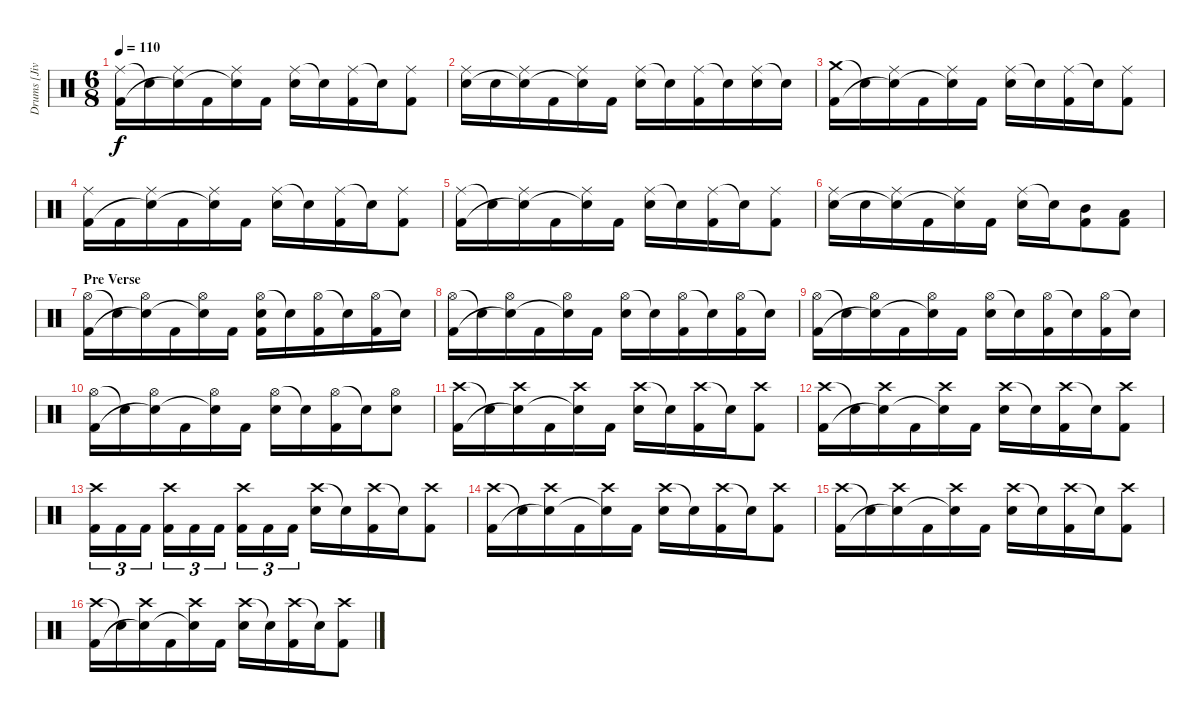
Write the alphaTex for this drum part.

\track ("Drums [Jivarp]" "Drums [Jiv") {instrument percussion}
\staff {score}
\articulation defaults
\ts (6 8)
\tempo 110
\clef neutral
\ks c
("Ride (middle)" "Kick (hit) 2").16{dy f} "Snare (hit)"{t}.16 ("Ride (middle)" "Snare (hit)"{t}).16 "Kick (hit) 2".16 ("Ride (middle)" "Snare (hit)"{t}).16 "Kick (hit) 2".16 ("Ride (middle)" "Electric Snare (hit)").16 "Snare (hit)"{t}.16 ("Ride (middle)" "Kick (hit) 2").16 "Snare (hit)"{t}.16 ("Ride (middle)" "Kick (hit) 2").8 |
("Ride (middle)" "Electric Snare (hit)").16 "Electric Snare (hit)".16 ("Ride (middle)" "Snare (hit)"{t}).16 "Kick (hit) 2".16 ("Ride (middle)" "Snare (hit)"{t}).16 "Kick (hit) 2".16 ("Ride (middle)" "Electric Snare (hit)").16 "Snare (hit)"{t}.16 ("Ride (middle)" "Kick (hit) 2").16 "Snare (hit)"{t}.16 ("Ride (middle)" "Electric Snare (hit)").16 "Snare (hit)"{t}.16 |
("Crash medium (hit)" "Kick (hit) 2").16 "Snare (hit)"{t}.16 ("Ride (middle)" "Snare (hit)"{t}).16 "Kick (hit) 2".16 ("Ride (middle)" "Snare (hit)"{t}).16 "Kick (hit) 2".16 ("Ride (middle)" "Electric Snare (hit)").16 "Snare (hit)"{t}.16 ("Ride (middle)" "Kick (hit) 2").16 "Snare (hit)"{t}.16 ("Ride (middle)" "Kick (hit) 2").8 |
("Ride (middle)" "Kick (hit) 2").16 "Kick (hit) 2".16 ("Ride (middle)" "Snare (hit)"{t}).16 "Kick (hit) 2".16 ("Ride (middle)" "Snare (hit)"{t}).16 "Kick (hit) 2".16 ("Ride (middle)" "Electric Snare (hit)").16 "Snare (hit)"{t}.16 ("Ride (middle)" "Kick (hit) 2").16 "Snare (hit)"{t}.16 ("Ride (middle)" "Kick (hit) 2").8 |
("Ride (middle)" "Kick (hit) 2").16 "Snare (hit)"{t}.16 ("Ride (middle)" "Snare (hit)"{t}).16 "Kick (hit) 2".16 ("Ride (middle)" "Snare (hit)"{t}).16 "Kick (hit) 2".16 ("Ride (middle)" "Electric Snare (hit)").16 "Snare (hit)"{t}.16 ("Ride (middle)" "Kick (hit) 2").16 "Snare (hit)"{t}.16 ("Ride (middle)" "Kick (hit) 2").8 |
("Ride (middle)" "Electric Snare (hit)").16 "Electric Snare (hit)".16 ("Ride (middle)" "Snare (hit)"{t}).16 "Kick (hit) 2".16 ("Ride (middle)" "Snare (hit)"{t}).16 "Kick (hit) 2".16 ("Ride (middle)" "Electric Snare (hit)").16 "Snare (hit)"{t}.16 ("Mid Tom (hit)" "Kick (hit) 2").8 ("Low Tom (hit)" "Kick (hit) 2").8 |
\section ("" "Pre Verse")
("Hi-Hat (open)" "Kick (hit) 2").16 "Snare (hit)"{t}.16 ("Hi-Hat (open)" "Snare (hit)"{t}).16 "Kick (hit) 2".16 ("Hi-Hat (open)" "Snare (hit)"{t}).16 "Kick (hit) 2".16 ("Hi-Hat (open)" "Electric Snare (hit)" "Kick (hit) 2").16 "Snare (hit)"{t}.16 ("Hi-Hat (open)" "Kick (hit) 2").16 "Snare (hit)"{t}.16 ("Hi-Hat (open)" "Kick (hit) 2").16 "Snare (hit)"{t}.16 |
("Hi-Hat (open)" "Kick (hit) 2").16 "Snare (hit)"{t}.16 ("Hi-Hat (open)" "Snare (hit)"{t}).16 "Kick (hit) 2".16 ("Hi-Hat (open)" "Snare (hit)"{t}).16 "Kick (hit) 2".16 ("Hi-Hat (open)" "Electric Snare (hit)").16 "Snare (hit)"{t}.16 ("Hi-Hat (open)" "Kick (hit) 2").16 "Snare (hit)"{t}.16 ("Hi-Hat (open)" "Kick (hit) 2").16 "Snare (hit)"{t}.16 |
("Hi-Hat (open)" "Kick (hit) 2").16 "Snare (hit)"{t}.16 ("Hi-Hat (open)" "Snare (hit)"{t}).16 "Kick (hit) 2".16 ("Hi-Hat (open)" "Snare (hit)"{t}).16 "Kick (hit) 2".16 ("Hi-Hat (open)" "Electric Snare (hit)").16 "Snare (hit)"{t}.16 ("Hi-Hat (open)" "Kick (hit) 2").16 "Snare (hit)"{t}.16 ("Hi-Hat (open)" "Kick (hit) 2").16 "Snare (hit)"{t}.16 |
("Hi-Hat (open)" "Kick (hit) 2").16 "Snare (hit)"{t}.16 ("Hi-Hat (open)" "Snare (hit)"{t}).16 "Kick (hit) 2".16 ("Hi-Hat (open)" "Snare (hit)"{t}).16 "Kick (hit) 2".16 ("Hi-Hat (open)" "Electric Snare (hit)").16 "Snare (hit)"{t}.16 ("Hi-Hat (open)" "Kick (hit) 2").16 "Snare (hit)"{t}.16 ("Hi-Hat (open)" "Electric Snare (hit)").8 |
("Crash high (hit)" "Kick (hit) 2").16 "Snare (hit)"{t}.16 ("Crash high (hit)" "Snare (hit)"{t}).16 "Kick (hit) 2".16 ("Crash high (hit)" "Snare (hit)"{t}).16 "Kick (hit) 2".16 ("Crash high (hit)" "Electric Snare (hit)").16 "Snare (hit)"{t}.16 ("Crash high (hit)" "Kick (hit) 2").16 "Snare (hit)"{t}.16 ("Crash high (hit)" "Kick (hit) 2").8 |
("Crash high (hit)" "Kick (hit) 2").16 "Snare (hit)"{t}.16 ("Crash high (hit)" "Snare (hit)"{t}).16 "Kick (hit) 2".16 ("Crash high (hit)" "Snare (hit)"{t}).16 "Kick (hit) 2".16 ("Crash high (hit)" "Electric Snare (hit)").16 "Snare (hit)"{t}.16 ("Crash high (hit)" "Kick (hit) 2").16 "Snare (hit)"{t}.16 ("Crash high (hit)" "Kick (hit) 2").8 |
("Crash high (hit)" "Kick (hit) 2").16{tu (3 2)} "Kick (hit) 2".16{tu (3 2)} "Kick (hit) 2".16{tu (3 2)} ("Crash high (hit)" "Kick (hit) 2").16{tu (3 2)} "Kick (hit) 2".16{tu (3 2)} "Kick (hit) 2".16{tu (3 2)} ("Crash high (hit)" "Kick (hit) 2").16{tu (3 2)} "Kick (hit) 2".16{tu (3 2)} "Kick (hit) 2".16{tu (3 2)} ("Crash high (hit)" "Electric Snare (hit)").16 "Snare (hit)"{t}.16 ("Crash high (hit)" "Kick (hit) 2").16 "Snare (hit)"{t}.16 ("Crash high (hit)" "Kick (hit) 2").8 |
("Crash high (hit)" "Kick (hit) 2").16 "Snare (hit)"{t}.16 ("Crash high (hit)" "Snare (hit)"{t}).16 "Kick (hit) 2".16 ("Crash high (hit)" "Snare (hit)"{t}).16 "Kick (hit) 2".16 ("Crash high (hit)" "Electric Snare (hit)").16 "Snare (hit)"{t}.16 ("Crash high (hit)" "Kick (hit) 2").16 "Snare (hit)"{t}.16 ("Crash high (hit)" "Kick (hit) 2").8 |
("Crash high (hit)" "Kick (hit) 2").16 "Snare (hit)"{t}.16 ("Crash high (hit)" "Snare (hit)"{t}).16 "Kick (hit) 2".16 ("Crash high (hit)" "Snare (hit)"{t}).16 "Kick (hit) 2".16 ("Crash high (hit)" "Electric Snare (hit)").16 "Snare (hit)"{t}.16 ("Crash high (hit)" "Kick (hit) 2").16 "Snare (hit)"{t}.16 ("Crash high (hit)" "Kick (hit) 2").8 |
("Crash high (hit)" "Kick (hit) 2").16 "Snare (hit)"{t}.16 ("Crash high (hit)" "Snare (hit)"{t}).16 "Kick (hit) 2".16 ("Crash high (hit)" "Snare (hit)"{t}).16 "Kick (hit) 2".16 ("Crash high (hit)" "Electric Snare (hit)").16 "Snare (hit)"{t}.16 ("Crash high (hit)" "Kick (hit) 2").16 "Snare (hit)"{t}.16 ("Crash high (hit)" "Kick (hit) 2").8
